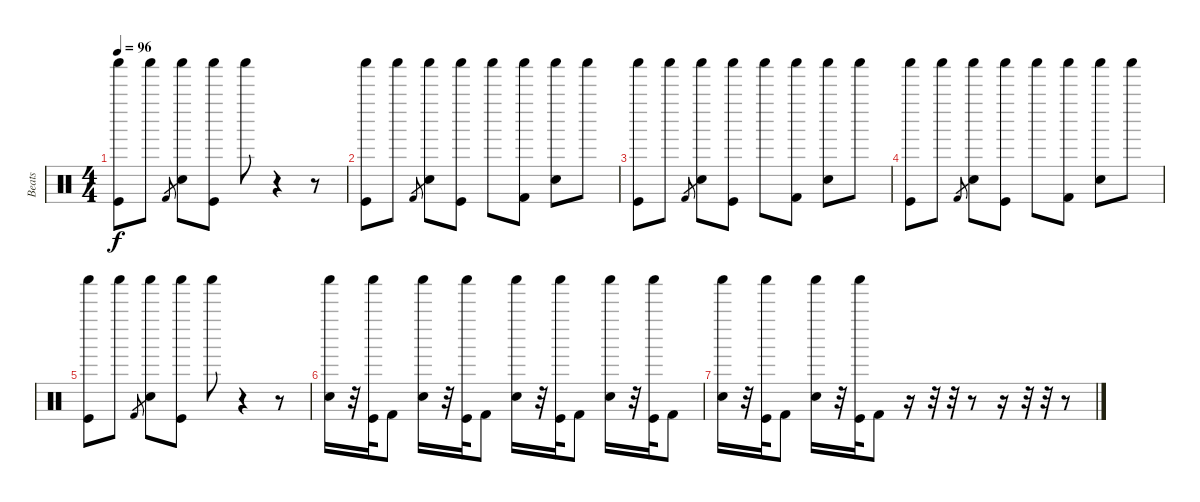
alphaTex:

\track ("Beats" "Beats") {instrument percussion}
\staff {score}
\articulation defaults
\ts (4 4)
\tempo 96
\clef neutral
\ks c
("Shaker (hit)" "Kick (hit)").8{dy f} "Shaker (hit)".8 "Kick (hit) 2".8{gr} ("Shaker (hit)" "Snare (hit) 2").8 ("Shaker (hit)" "Kick (hit)").8 "Shaker (hit)".8 r.4 r.8 |
("Shaker (hit)" "Kick (hit)").8 "Shaker (hit)".8 "Kick (hit) 2".8{gr} ("Shaker (hit)" "Snare (hit) 2").8 ("Shaker (hit)" "Kick (hit)").8 "Shaker (hit)".8 ("Shaker (hit)" "Kick (hit) 2").8 ("Shaker (hit)" "Snare (hit) 2").8 "Shaker (hit)".8 |
("Shaker (hit)" "Kick (hit)").8 "Shaker (hit)".8 "Kick (hit) 2".8{gr} ("Shaker (hit)" "Snare (hit) 2").8 ("Shaker (hit)" "Kick (hit)").8 "Shaker (hit)".8 ("Shaker (hit)" "Kick (hit) 2").8 ("Shaker (hit)" "Snare (hit) 2").8 "Shaker (hit)".8 |
("Shaker (hit)" "Kick (hit)").8 "Shaker (hit)".8 "Kick (hit) 2".8{gr} ("Shaker (hit)" "Snare (hit) 2").8 ("Shaker (hit)" "Kick (hit)").8 "Shaker (hit)".8 ("Shaker (hit)" "Kick (hit) 2").8 ("Shaker (hit)" "Snare (hit) 2").8 "Shaker (hit)".8 |
("Shaker (hit)" "Kick (hit)").8 "Shaker (hit)".8 "Kick (hit) 2".8{gr} ("Shaker (hit)" "Snare (hit) 2").8 ("Shaker (hit)" "Kick (hit)").8 "Shaker (hit)".8 r.4 r.8 |
("Shaker (hit)" "Snare (hit) 2").16{volume 0} r.32 ("Shaker (hit)" "Kick (hit)").32 "Kick (hit) 2".8 ("Shaker (hit)" "Snare (hit) 2").16 r.32 ("Shaker (hit)" "Kick (hit)").32 "Kick (hit) 2".8 ("Shaker (hit)" "Snare (hit) 2").16 r.32 ("Shaker (hit)" "Kick (hit)").32 "Kick (hit) 2".8 ("Shaker (hit)" "Snare (hit) 2").16 r.32 ("Shaker (hit)" "Kick (hit)").32 "Kick (hit) 2".8 |
("Shaker (hit)" "Snare (hit) 2").16 r.32 ("Shaker (hit)" "Kick (hit)").32 "Kick (hit) 2".8 ("Shaker (hit)" "Snare (hit) 2").16 r.32 ("Shaker (hit)" "Kick (hit)").32 "Kick (hit) 2".8 r.16 r.32 r.32 r.8 r.16 r.32 r.32 r.8
